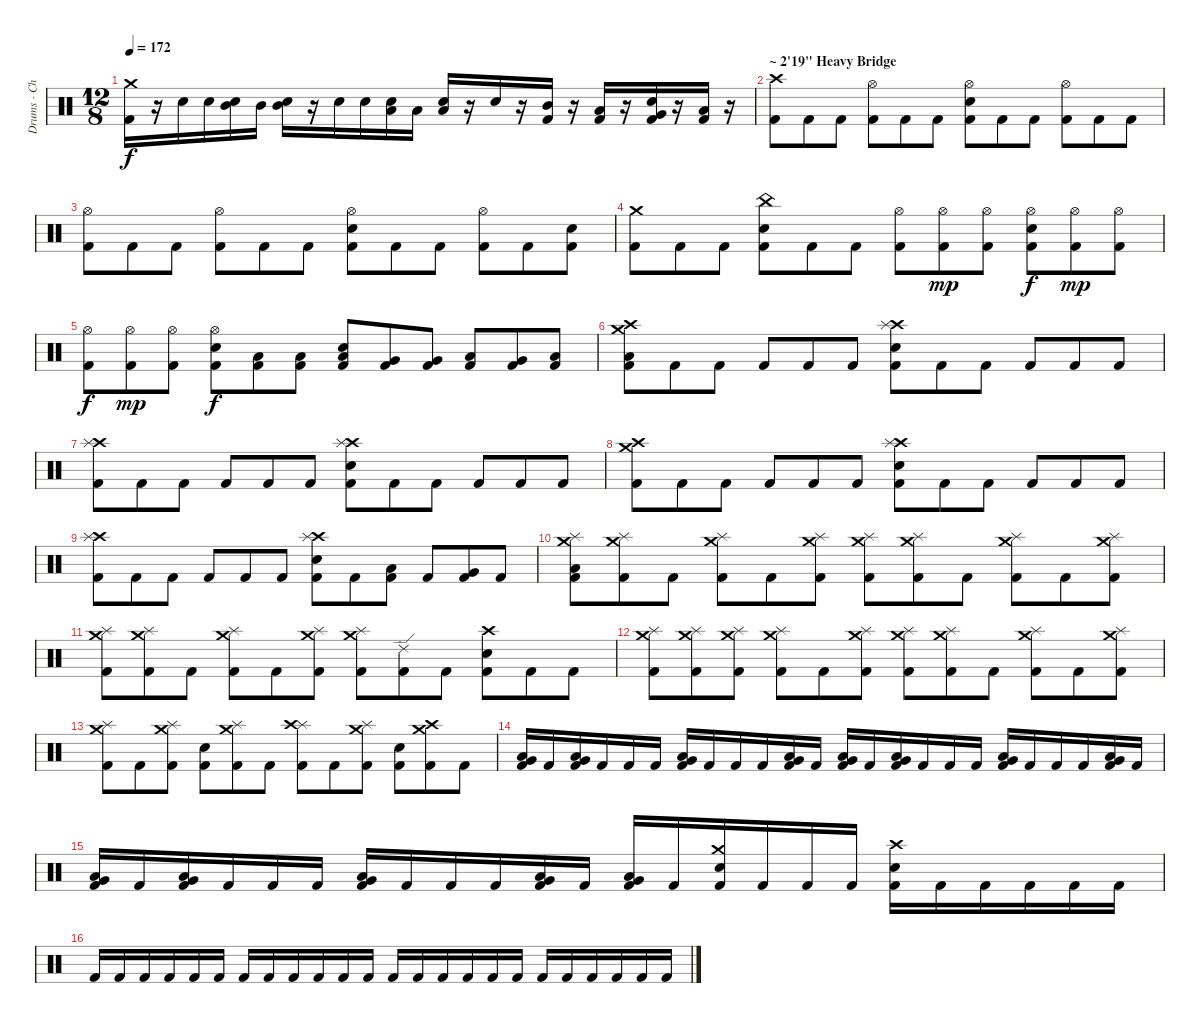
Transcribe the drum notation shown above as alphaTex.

\track ("Drums - Christopher Merzinsky" "Drums - Ch") {instrument percussion}
\staff {score}
\articulation defaults
\ts (12 8)
\tempo 172
\clef neutral
\ks c
("Kick (hit) 2" "Crash medium (hit)").16{dy f} r.16 "Electric Snare (hit)".16 "Electric Snare (hit)".16 ("Electric Snare (hit)" "Mid Tom (hit)").16 "Mid Tom (hit)".16 ("Electric Snare (hit)" "Mid Tom (hit)").16 r.16 "Snare (hit) 2".16 "Snare (hit) 2".16 ("Snare (hit) 2" "Low Tom (hit)").16 "Low Tom (hit)".16 ("Snare (hit) 2" "Low Tom (hit)").16 r.16 "Electric Snare (hit)".16 r.16 ("Kick (hit) 2" "Mid Tom (hit)").16 r.16 ("Kick (hit) 2" "Low Tom (hit)").16 r.16 ("Kick (hit) 2" "Very Low Tom (hit)" "Electric Snare (hit)").16 r.16 ("Kick (hit) 2" "Low Floor Tom (hit)").16 r.16 |
\section ("" "~ 2'19\" Heavy Bridge")
("Crash high (hit)" "Kick (hit) 2").8 "Kick (hit) 2".8 "Kick (hit) 2".8 ("Kick (hit) 2" "Hi-Hat (open)").8 "Kick (hit) 2".8 "Kick (hit) 2".8 ("Kick (hit) 2" "Hi-Hat (open)" "Electric Snare (hit)").8 "Kick (hit) 2".8 "Kick (hit) 2".8 ("Hi-Hat (open)" "Kick (hit) 2").8 "Kick (hit) 2".8 "Kick (hit) 2".8 |
("Kick (hit) 2" "Hi-Hat (open)").8 "Kick (hit) 2".8 "Kick (hit) 2".8 ("Kick (hit) 2" "Hi-Hat (open)").8 "Kick (hit) 2".8 "Kick (hit) 2".8 ("Kick (hit) 2" "Hi-Hat (open)" "Electric Snare (hit)").8 "Kick (hit) 2".8 "Kick (hit) 2".8 ("Kick (hit) 2" "Hi-Hat (open)").8 "Kick (hit) 2".8 ("Kick (hit) 2" "Electric Snare (hit)").8 |
("Kick (hit) 2" "Crash medium (hit)").8 "Kick (hit) 2".8 "Kick (hit) 2".8 ("Kick (hit) 2" "Electric Snare (hit)" "China (hit)").8 "Kick (hit) 2".8 "Kick (hit) 2".8 ("Kick (hit) 2" "Hi-Hat (open)").8 ("Kick (hit) 2" "Hi-Hat (open)").8{dy mp} ("Kick (hit) 2" "Hi-Hat (open)").8 ("Kick (hit) 2" "Electric Snare (hit)" "Hi-Hat (open)").8{dy f} ("Kick (hit) 2" "Hi-Hat (open)").8{dy mp} ("Kick (hit) 2" "Hi-Hat (open)").8 |
("Kick (hit) 2" "Hi-Hat (open)").8{dy f} ("Kick (hit) 2" "Hi-Hat (open)").8{dy mp} ("Kick (hit) 2" "Hi-Hat (open)").8 ("Kick (hit) 2" "Electric Snare (hit)" "Hi-Hat (open)").8{dy f} ("Kick (hit) 2" "Low Tom (hit)").8 ("Kick (hit) 2" "Low Tom (hit)").8 ("Kick (hit) 2" "Electric Snare (hit)" "Low Tom (hit)").8 ("Kick (hit) 2" "Very Low Tom (hit)").8 ("Kick (hit) 2" "Very Low Tom (hit)").8 ("Kick (hit) 2" "Low Tom (hit)").8 ("Kick (hit) 2" "Very Low Tom (hit)").8 ("Kick (hit) 2" "Low Floor Tom (hit)").8 |
("Kick (hit) 2" "Crash high (hit)" "Crash medium (hit)" "Low Floor Tom (hit)").8 "Kick (hit) 2".8 "Kick (hit) 2".8 "Kick (hit) 2".8 "Kick (hit) 2".8 "Kick (hit) 2".8 ("Electric Snare (hit)" "Kick (hit) 2" "Crash high (hit)" "Splash (hit)").8 "Kick (hit) 2".8 "Kick (hit) 2".8 "Kick (hit) 2".8 "Kick (hit) 2".8 "Kick (hit) 2".8 |
("Kick (hit) 2" "Crash high (hit)" "Splash (hit)").8 "Kick (hit) 2".8 "Kick (hit) 2".8 "Kick (hit) 2".8 "Kick (hit) 2".8 "Kick (hit) 2".8 ("Electric Snare (hit)" "Kick (hit) 2" "Crash high (hit)" "Splash (hit)").8 "Kick (hit) 2".8 "Kick (hit) 2".8 "Kick (hit) 2".8 "Kick (hit) 2".8 "Kick (hit) 2".8 |
("Kick (hit) 2" "Crash high (hit)" "Crash medium (hit)").8 "Kick (hit) 2".8 "Kick (hit) 2".8 "Kick (hit) 2".8 "Kick (hit) 2".8 "Kick (hit) 2".8 ("Electric Snare (hit)" "Kick (hit) 2" "Crash high (hit)" "Splash (hit)").8 "Kick (hit) 2".8 "Kick (hit) 2".8 "Kick (hit) 2".8 "Kick (hit) 2".8 "Kick (hit) 2".8 |
("Kick (hit) 2" "Crash high (hit)" "Splash (hit)").8 "Kick (hit) 2".8 "Kick (hit) 2".8 "Kick (hit) 2".8 "Kick (hit) 2".8 "Kick (hit) 2".8 ("Electric Snare (hit)" "Kick (hit) 2" "Crash high (hit)" "Splash (hit)").8 "Kick (hit) 2".8 ("Kick (hit) 2" "Low Tom (hit)").8 "Kick (hit) 2".8 ("Kick (hit) 2" "Very Low Tom (hit)").8 "Kick (hit) 2".8 |
("Low Floor Tom (hit)" "Crash medium (hit)" "Kick (hit) 2" "Splash (hit)").8 ("Crash medium (hit)" "Kick (hit) 2" "Splash (hit)").8 "Kick (hit) 2".8 ("Crash medium (hit)" "Kick (hit) 2" "Splash (hit)").8 "Kick (hit) 2".8 ("Crash medium (hit)" "Splash (hit)" "Kick (hit) 2").8 ("Crash medium (hit)" "Splash (hit)" "Kick (hit) 2").8 ("Crash medium (hit)" "Splash (hit)" "Kick (hit) 2").8 "Kick (hit) 2".8 ("Crash medium (hit)" "Splash (hit)" "Kick (hit) 2").8 "Kick (hit) 2".8 ("Splash (hit)" "Crash medium (hit)" "Kick (hit) 2").8 |
("Crash medium (hit)" "Kick (hit) 2" "Splash (hit)").8 ("Crash medium (hit)" "Kick (hit) 2" "Splash (hit)").8 "Kick (hit) 2".8 ("Crash medium (hit)" "Kick (hit) 2" "Splash (hit)").8 "Kick (hit) 2".8 ("Crash medium (hit)" "Splash (hit)" "Kick (hit) 2").8 ("Crash medium (hit)" "Splash (hit)" "Kick (hit) 2").8 ("Ride (edge) 2" "Kick (hit) 2").8 "Kick (hit) 2".8 ("Electric Snare (hit)" "Crash high (hit)" "Kick (hit) 2").8 "Kick (hit) 2".8 "Kick (hit) 2".8 |
("Crash medium (hit)" "Kick (hit) 2" "Splash (hit)").8 ("Crash medium (hit)" "Kick (hit) 2" "Splash (hit)").8 ("Kick (hit) 2" "Splash (hit)" "Crash medium (hit)").8 ("Crash medium (hit)" "Kick (hit) 2" "Splash (hit)").8 "Kick (hit) 2".8 ("Crash medium (hit)" "Splash (hit)" "Kick (hit) 2").8 ("Crash medium (hit)" "Splash (hit)" "Kick (hit) 2").8 ("Crash medium (hit)" "Splash (hit)" "Kick (hit) 2").8 "Kick (hit) 2".8 ("Crash medium (hit)" "Splash (hit)" "Kick (hit) 2").8 "Kick (hit) 2".8 ("Splash (hit)" "Crash medium (hit)" "Kick (hit) 2").8 |
("Splash (hit)" "Crash medium (hit)" "Kick (hit) 2").8 "Kick (hit) 2".8 ("Kick (hit) 2" "Crash medium (hit)" "Splash (hit)").8 ("Electric Snare (hit)" "Kick (hit) 2").8 ("Kick (hit) 2" "Crash medium (hit)" "Splash (hit)").8 "Kick (hit) 2".8 ("Splash (hit)" "Kick (hit) 2" "Crash high (hit)").8 "Kick (hit) 2".8 ("Kick (hit) 2" "Crash medium (hit)" "Splash (hit)").8 ("Electric Snare (hit)" "Kick (hit) 2").8 ("Kick (hit) 2" "Crash medium (hit)" "Crash high (hit)").8 "Kick (hit) 2".8 |
("Low Floor Tom (hit)" "Kick (hit) 2" "Very Low Tom (hit)").16 "Kick (hit) 2".16 ("Kick (hit) 2" "Low Floor Tom (hit)" "Very Low Tom (hit)").16 "Kick (hit) 2".16 "Kick (hit) 2".16 "Kick (hit) 2".16 ("Kick (hit) 2" "Low Floor Tom (hit)" "Very Low Tom (hit)").16 "Kick (hit) 2".16 "Kick (hit) 2".16 "Kick (hit) 2".16 ("Kick (hit) 2" "Low Floor Tom (hit)" "Very Low Tom (hit)").16 "Kick (hit) 2".16 ("Kick (hit) 2" "Low Floor Tom (hit)" "Very Low Tom (hit)").16 "Kick (hit) 2".16 ("Kick (hit) 2" "Low Floor Tom (hit)" "Very Low Tom (hit)").16 "Kick (hit) 2".16 "Kick (hit) 2".16 "Kick (hit) 2".16 ("Kick (hit) 2" "Low Floor Tom (hit)" "Very Low Tom (hit)").16 "Kick (hit) 2".16 "Kick (hit) 2".16 "Kick (hit) 2".16 ("Kick (hit) 2" "Low Floor Tom (hit)" "Very Low Tom (hit)").16 "Kick (hit) 2".16 |
("Low Floor Tom (hit)" "Kick (hit) 2" "Very Low Tom (hit)").16 "Kick (hit) 2".16 ("Kick (hit) 2" "Low Floor Tom (hit)" "Very Low Tom (hit)").16 "Kick (hit) 2".16 "Kick (hit) 2".16 "Kick (hit) 2".16 ("Kick (hit) 2" "Low Floor Tom (hit)" "Very Low Tom (hit)").16 "Kick (hit) 2".16 "Kick (hit) 2".16 "Kick (hit) 2".16 ("Kick (hit) 2" "Low Floor Tom (hit)" "Very Low Tom (hit)").16 "Kick (hit) 2".16 ("Kick (hit) 2" "Low Floor Tom (hit)" "Very Low Tom (hit)").16 "Kick (hit) 2".16 ("Kick (hit) 2" "Electric Snare (hit)" "Crash medium (hit)").16 "Kick (hit) 2".16 "Kick (hit) 2".16 "Kick (hit) 2".16 ("Kick (hit) 2" "Crash high (hit)" "Electric Snare (hit)").16 "Kick (hit) 2".16 "Kick (hit) 2".16 "Kick (hit) 2".16 "Kick (hit) 2".16 "Kick (hit) 2".16 |
"Kick (hit) 2".16 "Kick (hit) 2".16 "Kick (hit) 2".16 "Kick (hit) 2".16 "Kick (hit) 2".16 "Kick (hit) 2".16 "Kick (hit) 2".16 "Kick (hit) 2".16 "Kick (hit) 2".16 "Kick (hit) 2".16 "Kick (hit) 2".16 "Kick (hit) 2".16 "Kick (hit) 2".16 "Kick (hit) 2".16 "Kick (hit) 2".16 "Kick (hit) 2".16 "Kick (hit) 2".16 "Kick (hit) 2".16 "Kick (hit) 2".16 "Kick (hit) 2".16 "Kick (hit) 2".16 "Kick (hit) 2".16 "Kick (hit) 2".16 "Kick (hit) 2".16
